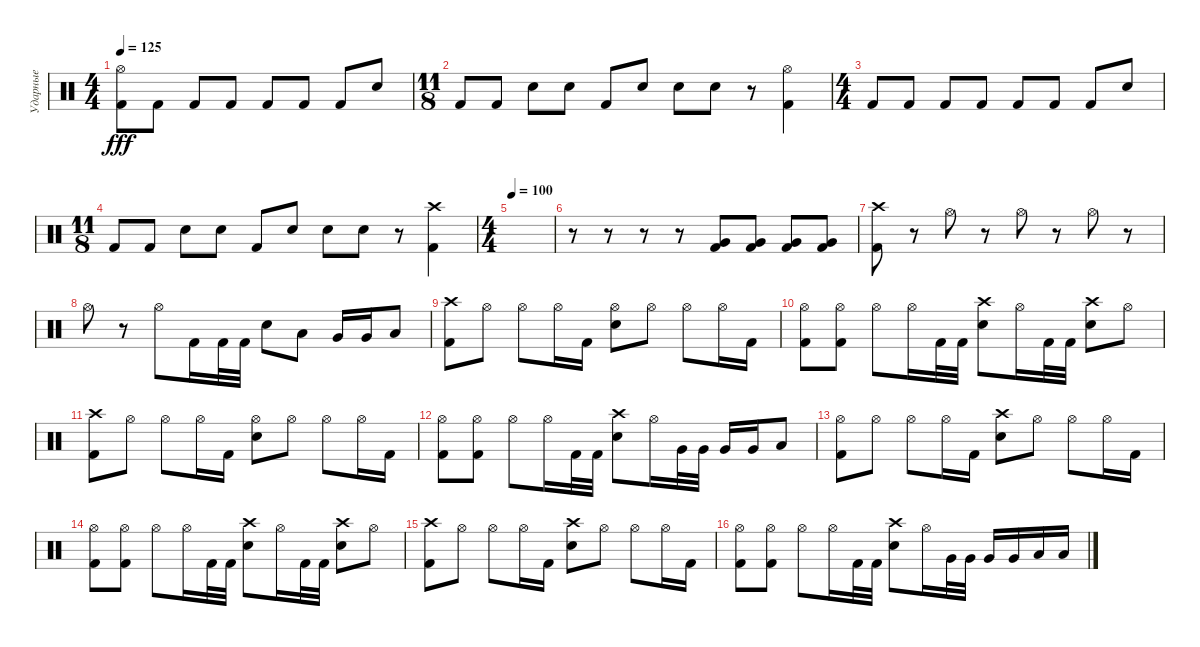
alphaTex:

\track ("Ударные" "Ударные") {instrument percussion}
\staff {score}
\articulation defaults
\ts (4 4)
\tempo 125
\clef neutral
\ks c
("Hi-Hat (open)" "Kick (hit) 2").8{dy fff} "Kick (hit) 2".8 "Kick (hit) 2".8 "Kick (hit) 2".8 "Kick (hit) 2".8 "Kick (hit) 2".8 "Kick (hit) 2".8 "Electric Snare (hit)".8 |
\ts (11 8)
"Kick (hit) 2".8 "Kick (hit) 2".8 "Electric Snare (hit)".8 "Electric Snare (hit)".8 "Kick (hit) 2".8 "Electric Snare (hit)".8 "Electric Snare (hit)".8 "Electric Snare (hit)".8 r.8 ("Hi-Hat (open)" "Kick (hit) 2").4 |
\ts (4 4)
"Kick (hit) 2".8 "Kick (hit) 2".8 "Kick (hit) 2".8 "Kick (hit) 2".8 "Kick (hit) 2".8 "Kick (hit) 2".8 "Kick (hit) 2".8 "Electric Snare (hit)".8 |
\ts (11 8)
"Kick (hit) 2".8 "Kick (hit) 2".8 "Electric Snare (hit)".8 "Electric Snare (hit)".8 "Kick (hit) 2".8 "Electric Snare (hit)".8 "Electric Snare (hit)".8 "Electric Snare (hit)".8 r.8 ("Crash high (hit)" "Kick (hit) 2").4 |
\ts (4 4)
\tempo 100
|
r.8 r.8 r.8 r.8 ("Very Low Tom (hit)" "Kick (hit) 2").8 ("Very Low Tom (hit)" "Kick (hit) 2").8 ("Very Low Tom (hit)" "Kick (hit) 2").8 ("Very Low Tom (hit)" "Kick (hit) 2").8 |
("Crash high (hit)" "Kick (hit) 2").8 r.8 "Hi-Hat (open)".8 r.8 "Hi-Hat (open)".8 r.8 "Hi-Hat (open)".8 r.8 |
"Hi-Hat (open)".8 r.8 "Hi-Hat (open)".8 "Kick (hit) 2".16 "Kick (hit) 2".32 "Kick (hit) 2".32 "Electric Snare (hit)".8 "Low Tom (hit)".8 "Very Low Tom (hit)".16 "Very Low Tom (hit)".16 "Low Floor Tom (hit)".8 |
("Crash high (hit)" "Kick (hit) 2").8 "Hi-Hat (open)".8 "Hi-Hat (open)".8 "Hi-Hat (open)".16 "Kick (hit) 2".16 ("Hi-Hat (open)" "Electric Snare (hit)").8 "Hi-Hat (open)".8 "Hi-Hat (open)".8 "Hi-Hat (open)".16 "Kick (hit) 2".16 |
("Hi-Hat (open)" "Kick (hit) 2").8 ("Hi-Hat (open)" "Kick (hit) 2").8 "Hi-Hat (open)".8 "Hi-Hat (open)".16 "Kick (hit) 2".32 "Kick (hit) 2".32 ("Crash high (hit)" "Electric Snare (hit)").8 "Hi-Hat (open)".16 "Kick (hit) 2".32 "Kick (hit) 2".32 ("Crash high (hit)" "Electric Snare (hit)").8 "Hi-Hat (open)".8 |
("Crash high (hit)" "Kick (hit) 2").8 "Hi-Hat (open)".8 "Hi-Hat (open)".8 "Hi-Hat (open)".16 "Kick (hit) 2".16 ("Hi-Hat (open)" "Electric Snare (hit)").8 "Hi-Hat (open)".8 "Hi-Hat (open)".8 "Hi-Hat (open)".16 "Kick (hit) 2".16 |
("Hi-Hat (open)" "Kick (hit) 2").8 ("Hi-Hat (open)" "Kick (hit) 2").8 "Hi-Hat (open)".8 "Hi-Hat (open)".16 "Kick (hit) 2".32 "Kick (hit) 2".32 ("Crash high (hit)" "Electric Snare (hit)").8 "Hi-Hat (open)".16 "Very Low Tom (hit)".32 "Very Low Tom (hit)".32 "Very Low Tom (hit)".16 "Very Low Tom (hit)".16 "Low Floor Tom (hit)".8 |
("Hi-Hat (open)" "Kick (hit) 2").8 "Hi-Hat (open)".8 "Hi-Hat (open)".8 "Hi-Hat (open)".16 "Kick (hit) 2".16 ("Crash high (hit)" "Electric Snare (hit)").8 "Hi-Hat (open)".8 "Hi-Hat (open)".8 "Hi-Hat (open)".16 "Kick (hit) 2".16 |
("Hi-Hat (open)" "Kick (hit) 2").8 ("Hi-Hat (open)" "Kick (hit) 2").8 "Hi-Hat (open)".8 "Hi-Hat (open)".16 "Kick (hit) 2".32 "Kick (hit) 2".32 ("Crash high (hit)" "Electric Snare (hit)").8 "Hi-Hat (open)".16 "Kick (hit) 2".32 "Kick (hit) 2".32 ("Crash high (hit)" "Electric Snare (hit)").8 "Hi-Hat (open)".8 |
("Crash high (hit)" "Kick (hit) 2").8 "Hi-Hat (open)".8 "Hi-Hat (open)".8 "Hi-Hat (open)".16 "Kick (hit) 2".16 ("Crash high (hit)" "Electric Snare (hit)").8 "Hi-Hat (open)".8 "Hi-Hat (open)".8 "Hi-Hat (open)".16 "Kick (hit) 2".16 |
("Hi-Hat (open)" "Kick (hit) 2").8 ("Hi-Hat (open)" "Kick (hit) 2").8 "Hi-Hat (open)".8 "Hi-Hat (open)".16 "Kick (hit) 2".32 "Kick (hit) 2".32 ("Crash high (hit)" "Electric Snare (hit)").8 "Hi-Hat (open)".16 "Very Low Tom (hit)".32 "Very Low Tom (hit)".32 "Very Low Tom (hit)".16 "Very Low Tom (hit)".16 "Low Floor Tom (hit)".16 "Low Floor Tom (hit)".16
